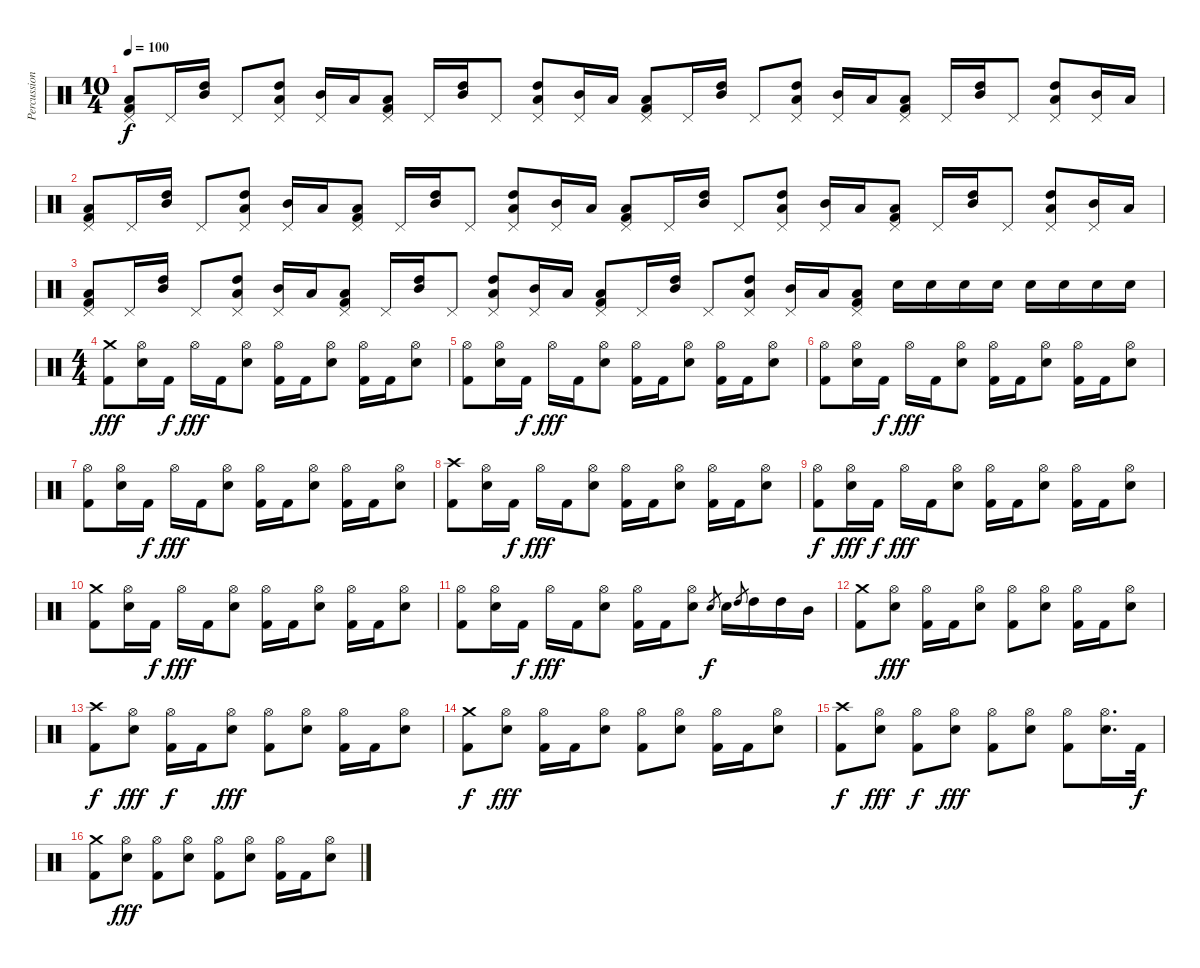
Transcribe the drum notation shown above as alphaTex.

\track ("Percussion" "Percussion") {instrument percussion}
\staff {score}
\articulation defaults
\ts (10 4)
\tempo 100
\clef neutral
\ks c
("Low Tom (hit)" "Pedal Hi-Hat (hit)" "Kick (hit) 2").8{dy f} "Pedal Hi-Hat (hit)".16 ("Mid Tom (hit)" "High Tom (hit)").16 "Pedal Hi-Hat (hit)".8 ("Low Tom (hit)" "Pedal Hi-Hat (hit)" "High Tom (hit)").8 ("Mid Tom (hit)" "Pedal Hi-Hat (hit)").16 "Low Tom (hit)".16 ("Low Tom (hit)" "Pedal Hi-Hat (hit)" "Kick (hit) 2").8 "Pedal Hi-Hat (hit)".16 ("Mid Tom (hit)" "High Tom (hit)").16 "Pedal Hi-Hat (hit)".8 ("Low Tom (hit)" "Pedal Hi-Hat (hit)" "High Tom (hit)").8 ("Mid Tom (hit)" "Pedal Hi-Hat (hit)").16 "Low Tom (hit)".16 ("Low Tom (hit)" "Pedal Hi-Hat (hit)" "Kick (hit) 2").8 "Pedal Hi-Hat (hit)".16 ("Mid Tom (hit)" "High Tom (hit)").16 "Pedal Hi-Hat (hit)".8 ("Low Tom (hit)" "Pedal Hi-Hat (hit)" "High Tom (hit)").8 ("Mid Tom (hit)" "Pedal Hi-Hat (hit)").16 "Low Tom (hit)".16 ("Low Tom (hit)" "Pedal Hi-Hat (hit)" "Kick (hit) 2").8 "Pedal Hi-Hat (hit)".16 ("Mid Tom (hit)" "High Tom (hit)").16 "Pedal Hi-Hat (hit)".8 ("Low Tom (hit)" "Pedal Hi-Hat (hit)" "High Tom (hit)").8 ("Mid Tom (hit)" "Pedal Hi-Hat (hit)").16 "Low Tom (hit)".16 |
("Low Tom (hit)" "Pedal Hi-Hat (hit)" "Kick (hit) 2").8 "Pedal Hi-Hat (hit)".16 ("Mid Tom (hit)" "High Tom (hit)").16 "Pedal Hi-Hat (hit)".8 ("Low Tom (hit)" "Pedal Hi-Hat (hit)" "High Tom (hit)").8 ("Mid Tom (hit)" "Pedal Hi-Hat (hit)").16 "Low Tom (hit)".16 ("Low Tom (hit)" "Pedal Hi-Hat (hit)" "Kick (hit) 2").8 "Pedal Hi-Hat (hit)".16 ("Mid Tom (hit)" "High Tom (hit)").16 "Pedal Hi-Hat (hit)".8 ("Low Tom (hit)" "Pedal Hi-Hat (hit)" "High Tom (hit)").8 ("Mid Tom (hit)" "Pedal Hi-Hat (hit)").16 "Low Tom (hit)".16 ("Low Tom (hit)" "Pedal Hi-Hat (hit)" "Kick (hit) 2").8 "Pedal Hi-Hat (hit)".16 ("Mid Tom (hit)" "High Tom (hit)").16 "Pedal Hi-Hat (hit)".8 ("Low Tom (hit)" "Pedal Hi-Hat (hit)" "High Tom (hit)").8 ("Mid Tom (hit)" "Pedal Hi-Hat (hit)").16 "Low Tom (hit)".16 ("Low Tom (hit)" "Pedal Hi-Hat (hit)" "Kick (hit) 2").8 "Pedal Hi-Hat (hit)".16 ("Mid Tom (hit)" "High Tom (hit)").16 "Pedal Hi-Hat (hit)".8 ("Low Tom (hit)" "Pedal Hi-Hat (hit)" "High Tom (hit)").8 ("Mid Tom (hit)" "Pedal Hi-Hat (hit)").16 "Low Tom (hit)".16 |
("Low Tom (hit)" "Pedal Hi-Hat (hit)" "Kick (hit) 2").8 "Pedal Hi-Hat (hit)".16 ("Mid Tom (hit)" "High Tom (hit)").16 "Pedal Hi-Hat (hit)".8 ("Low Tom (hit)" "Pedal Hi-Hat (hit)" "High Tom (hit)").8 ("Mid Tom (hit)" "Pedal Hi-Hat (hit)").16 "Low Tom (hit)".16 ("Low Tom (hit)" "Pedal Hi-Hat (hit)" "Kick (hit) 2").8 "Pedal Hi-Hat (hit)".16 ("Mid Tom (hit)" "High Tom (hit)").16 "Pedal Hi-Hat (hit)".8 ("Low Tom (hit)" "Pedal Hi-Hat (hit)" "High Tom (hit)").8 ("Mid Tom (hit)" "Pedal Hi-Hat (hit)").16 "Low Tom (hit)".16 ("Low Tom (hit)" "Pedal Hi-Hat (hit)" "Kick (hit) 2").8 "Pedal Hi-Hat (hit)".16 ("Mid Tom (hit)" "High Tom (hit)").16 "Pedal Hi-Hat (hit)".8 ("Low Tom (hit)" "Pedal Hi-Hat (hit)" "High Tom (hit)").8 ("Mid Tom (hit)" "Pedal Hi-Hat (hit)").16 "Low Tom (hit)".16 ("Low Tom (hit)" "Pedal Hi-Hat (hit)" "Kick (hit) 2").8 "Electric Snare (hit)".16 "Electric Snare (hit)".16 "Electric Snare (hit)".16 "Electric Snare (hit)".16 "Electric Snare (hit)".16 "Electric Snare (hit)".16 "Electric Snare (hit)".16 "Electric Snare (hit)".16 |
\ts (4 4)
("Crash medium (hit)" "Kick (hit) 2").8{dy fff} ("Hi-Hat (open)" "Electric Snare (hit)").16 "Kick (hit) 2".16{dy f} "Hi-Hat (open)".16{dy fff} "Kick (hit) 2".16 ("Hi-Hat (open)" "Electric Snare (hit)").8 ("Hi-Hat (open)" "Kick (hit) 2").16 "Kick (hit) 2".16 ("Hi-Hat (open)" "Electric Snare (hit)").8 ("Hi-Hat (open)" "Kick (hit) 2").16 "Kick (hit) 2".16 ("Hi-Hat (open)" "Electric Snare (hit)").8 |
("Hi-Hat (open)" "Kick (hit) 2").8 ("Hi-Hat (open)" "Electric Snare (hit)").16 "Kick (hit) 2".16{dy f} "Hi-Hat (open)".16{dy fff} "Kick (hit) 2".16 ("Hi-Hat (open)" "Electric Snare (hit)").8 ("Hi-Hat (open)" "Kick (hit) 2").16 "Kick (hit) 2".16 ("Hi-Hat (open)" "Electric Snare (hit)").8 ("Hi-Hat (open)" "Kick (hit) 2").16 "Kick (hit) 2".16 ("Hi-Hat (open)" "Electric Snare (hit)").8 |
("Hi-Hat (open)" "Kick (hit) 2").8 ("Hi-Hat (open)" "Electric Snare (hit)").16 "Kick (hit) 2".16{dy f} "Hi-Hat (open)".16{dy fff} "Kick (hit) 2".16 ("Hi-Hat (open)" "Electric Snare (hit)").8 ("Hi-Hat (open)" "Kick (hit) 2").16 "Kick (hit) 2".16 ("Hi-Hat (open)" "Electric Snare (hit)").8 ("Hi-Hat (open)" "Kick (hit) 2").16 "Kick (hit) 2".16 ("Hi-Hat (open)" "Electric Snare (hit)").8 |
("Hi-Hat (open)" "Kick (hit) 2").8 ("Hi-Hat (open)" "Electric Snare (hit)").16 "Kick (hit) 2".16{dy f} "Hi-Hat (open)".16{dy fff} "Kick (hit) 2".16 ("Hi-Hat (open)" "Electric Snare (hit)").8 ("Hi-Hat (open)" "Kick (hit) 2").16 "Kick (hit) 2".16 ("Hi-Hat (open)" "Electric Snare (hit)").8 ("Hi-Hat (open)" "Kick (hit) 2").16 "Kick (hit) 2".16 ("Hi-Hat (open)" "Electric Snare (hit)").8 |
("Crash high (hit)" "Kick (hit) 2").8 ("Hi-Hat (open)" "Electric Snare (hit)").16 "Kick (hit) 2".16{dy f} "Hi-Hat (open)".16{dy fff} "Kick (hit) 2".16 ("Hi-Hat (open)" "Electric Snare (hit)").8 ("Hi-Hat (open)" "Kick (hit) 2").16 "Kick (hit) 2".16 ("Hi-Hat (open)" "Electric Snare (hit)").8 ("Hi-Hat (open)" "Kick (hit) 2").16 "Kick (hit) 2".16 ("Hi-Hat (open)" "Electric Snare (hit)").8 |
("Hi-Hat (open)" "Kick (hit) 2").8{dy f} ("Hi-Hat (open)" "Electric Snare (hit)").16{dy fff} "Kick (hit) 2".16{dy f} "Hi-Hat (open)".16{dy fff} "Kick (hit) 2".16 ("Hi-Hat (open)" "Electric Snare (hit)").8 ("Hi-Hat (open)" "Kick (hit) 2").16 "Kick (hit) 2".16 ("Hi-Hat (open)" "Electric Snare (hit)").8 ("Hi-Hat (open)" "Kick (hit) 2").16 "Kick (hit) 2".16 ("Hi-Hat (open)" "Electric Snare (hit)").8 |
("Crash medium (hit)" "Kick (hit) 2").8 ("Hi-Hat (open)" "Electric Snare (hit)").16 "Kick (hit) 2".16{dy f} "Hi-Hat (open)".16{dy fff} "Kick (hit) 2".16 ("Hi-Hat (open)" "Electric Snare (hit)").8 ("Hi-Hat (open)" "Kick (hit) 2").16 "Kick (hit) 2".16 ("Hi-Hat (open)" "Electric Snare (hit)").8 ("Hi-Hat (open)" "Kick (hit) 2").16 "Kick (hit) 2".16 ("Hi-Hat (open)" "Electric Snare (hit)").8 |
("Hi-Hat (open)" "Kick (hit) 2").8 ("Hi-Hat (open)" "Electric Snare (hit)").16 "Kick (hit) 2".16{dy f} "Hi-Hat (open)".16{dy fff} "Kick (hit) 2".16 ("Hi-Hat (open)" "Electric Snare (hit)").8 ("Hi-Hat (open)" "Kick (hit) 2").16 "Kick (hit) 2".16 ("Hi-Hat (open)" "Electric Snare (hit)").8 "Electric Snare (hit)".8{gr dy f} "Electric Snare (hit)".16 "High Tom (hit)".8{gr} "High Tom (hit)".16 "High Tom (hit)".16 "Mid Tom (hit)".16 |
("Crash medium (hit)" "Kick (hit) 2").8 ("Hi-Hat (open)" "Electric Snare (hit)").8{dy fff} ("Hi-Hat (open)" "Kick (hit) 2").16 "Kick (hit) 2".16 ("Hi-Hat (open)" "Electric Snare (hit)").8 ("Hi-Hat (open)" "Kick (hit) 2").8 ("Hi-Hat (open)" "Electric Snare (hit)").8 ("Hi-Hat (open)" "Kick (hit) 2").16 "Kick (hit) 2".16 ("Hi-Hat (open)" "Electric Snare (hit)").8 |
("Crash high (hit)" "Kick (hit) 2").8{dy f} ("Hi-Hat (open)" "Electric Snare (hit)").8{dy fff} ("Hi-Hat (open)" "Kick (hit) 2").16{dy f} "Kick (hit) 2".16 ("Hi-Hat (open)" "Electric Snare (hit)").8{dy fff} ("Hi-Hat (open)" "Kick (hit) 2").8 ("Hi-Hat (open)" "Electric Snare (hit)").8 ("Hi-Hat (open)" "Kick (hit) 2").16 "Kick (hit) 2".16 ("Hi-Hat (open)" "Electric Snare (hit)").8 |
("Crash medium (hit)" "Kick (hit) 2").8{dy f} ("Hi-Hat (open)" "Electric Snare (hit)").8{dy fff} ("Hi-Hat (open)" "Kick (hit) 2").16 "Kick (hit) 2".16 ("Hi-Hat (open)" "Electric Snare (hit)").8 ("Hi-Hat (open)" "Kick (hit) 2").8 ("Hi-Hat (open)" "Electric Snare (hit)").8 ("Hi-Hat (open)" "Kick (hit) 2").16 "Kick (hit) 2".16 ("Hi-Hat (open)" "Electric Snare (hit)").8 |
("Crash high (hit)" "Kick (hit) 2").8{dy f} ("Hi-Hat (open)" "Electric Snare (hit)").8{dy fff} ("Hi-Hat (open)" "Kick (hit) 2").8{dy f} ("Hi-Hat (open)" "Electric Snare (hit)").8{dy fff} ("Hi-Hat (open)" "Kick (hit) 2").8 ("Hi-Hat (open)" "Electric Snare (hit)").8 ("Hi-Hat (open)" "Kick (hit) 2").8 ("Hi-Hat (open)" "Electric Snare (hit)").16{d} "Kick (hit) 2".32{dy f} |
("Crash medium (hit)" "Kick (hit) 2").8 ("Hi-Hat (open)" "Electric Snare (hit)").8{dy fff} ("Hi-Hat (open)" "Kick (hit) 2").8 ("Hi-Hat (open)" "Electric Snare (hit)").8 ("Hi-Hat (open)" "Kick (hit) 2").8 ("Hi-Hat (open)" "Electric Snare (hit)").8 ("Hi-Hat (open)" "Kick (hit) 2").16 "Kick (hit) 2".16 ("Hi-Hat (open)" "Electric Snare (hit)").8
